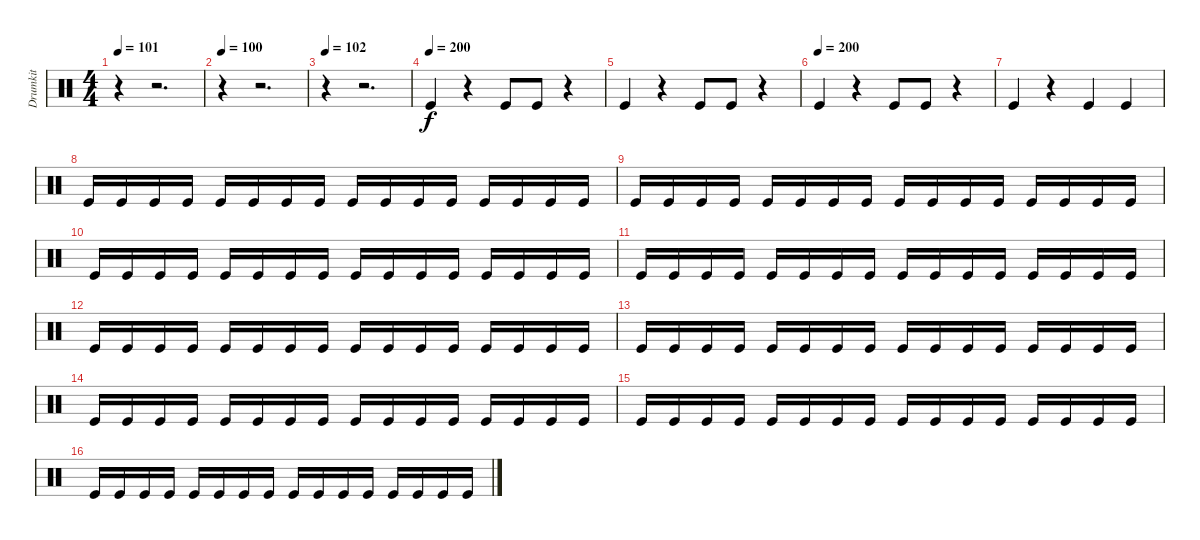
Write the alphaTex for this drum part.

\track ("Drumkit" "Drumkit") {instrument percussion}
\staff {score}
\articulation defaults
\ts (4 4)
\tempo 101
\clef neutral
\ks c
r.4{dy ff} r.2{d} |
\tempo 100
r.4 r.2{d} |
\tempo 102
r.4 r.2{d} |
\tempo (200)
"Kick (hit)".4{dy f} r.4 "Kick (hit)".8 "Kick (hit)".8 r.4 |
"Kick (hit)".4 r.4 "Kick (hit)".8 "Kick (hit)".8 r.4 |
\tempo (200)
"Kick (hit)".4 r.4 "Kick (hit)".8 "Kick (hit)".8 r.4 |
"Kick (hit)".4 r.4 "Kick (hit)".4 "Kick (hit)".4 |
"Kick (hit)".16 "Kick (hit)".16 "Kick (hit)".16 "Kick (hit)".16 "Kick (hit)".16 "Kick (hit)".16 "Kick (hit)".16 "Kick (hit)".16 "Kick (hit)".16 "Kick (hit)".16 "Kick (hit)".16 "Kick (hit)".16 "Kick (hit)".16 "Kick (hit)".16 "Kick (hit)".16 "Kick (hit)".16 |
"Kick (hit)".16 "Kick (hit)".16 "Kick (hit)".16 "Kick (hit)".16 "Kick (hit)".16 "Kick (hit)".16 "Kick (hit)".16 "Kick (hit)".16 "Kick (hit)".16 "Kick (hit)".16 "Kick (hit)".16 "Kick (hit)".16 "Kick (hit)".16 "Kick (hit)".16 "Kick (hit)".16 "Kick (hit)".16 |
"Kick (hit)".16 "Kick (hit)".16 "Kick (hit)".16 "Kick (hit)".16 "Kick (hit)".16 "Kick (hit)".16 "Kick (hit)".16 "Kick (hit)".16 "Kick (hit)".16 "Kick (hit)".16 "Kick (hit)".16 "Kick (hit)".16 "Kick (hit)".16 "Kick (hit)".16 "Kick (hit)".16 "Kick (hit)".16 |
"Kick (hit)".16 "Kick (hit)".16 "Kick (hit)".16 "Kick (hit)".16 "Kick (hit)".16 "Kick (hit)".16 "Kick (hit)".16 "Kick (hit)".16 "Kick (hit)".16 "Kick (hit)".16 "Kick (hit)".16 "Kick (hit)".16 "Kick (hit)".16 "Kick (hit)".16 "Kick (hit)".16 "Kick (hit)".16 |
"Kick (hit)".16 "Kick (hit)".16 "Kick (hit)".16 "Kick (hit)".16 "Kick (hit)".16 "Kick (hit)".16 "Kick (hit)".16 "Kick (hit)".16 "Kick (hit)".16 "Kick (hit)".16 "Kick (hit)".16 "Kick (hit)".16 "Kick (hit)".16 "Kick (hit)".16 "Kick (hit)".16 "Kick (hit)".16 |
"Kick (hit)".16 "Kick (hit)".16 "Kick (hit)".16 "Kick (hit)".16 "Kick (hit)".16 "Kick (hit)".16 "Kick (hit)".16 "Kick (hit)".16 "Kick (hit)".16 "Kick (hit)".16 "Kick (hit)".16 "Kick (hit)".16 "Kick (hit)".16 "Kick (hit)".16 "Kick (hit)".16 "Kick (hit)".16 |
"Kick (hit)".16 "Kick (hit)".16 "Kick (hit)".16 "Kick (hit)".16 "Kick (hit)".16 "Kick (hit)".16 "Kick (hit)".16 "Kick (hit)".16 "Kick (hit)".16 "Kick (hit)".16 "Kick (hit)".16 "Kick (hit)".16 "Kick (hit)".16 "Kick (hit)".16 "Kick (hit)".16 "Kick (hit)".16 |
"Kick (hit)".16 "Kick (hit)".16 "Kick (hit)".16 "Kick (hit)".16 "Kick (hit)".16 "Kick (hit)".16 "Kick (hit)".16 "Kick (hit)".16 "Kick (hit)".16 "Kick (hit)".16 "Kick (hit)".16 "Kick (hit)".16 "Kick (hit)".16 "Kick (hit)".16 "Kick (hit)".16 "Kick (hit)".16 |
"Kick (hit)".16 "Kick (hit)".16 "Kick (hit)".16 "Kick (hit)".16 "Kick (hit)".16 "Kick (hit)".16 "Kick (hit)".16 "Kick (hit)".16 "Kick (hit)".16 "Kick (hit)".16 "Kick (hit)".16 "Kick (hit)".16 "Kick (hit)".16 "Kick (hit)".16 "Kick (hit)".16 "Kick (hit)".16
